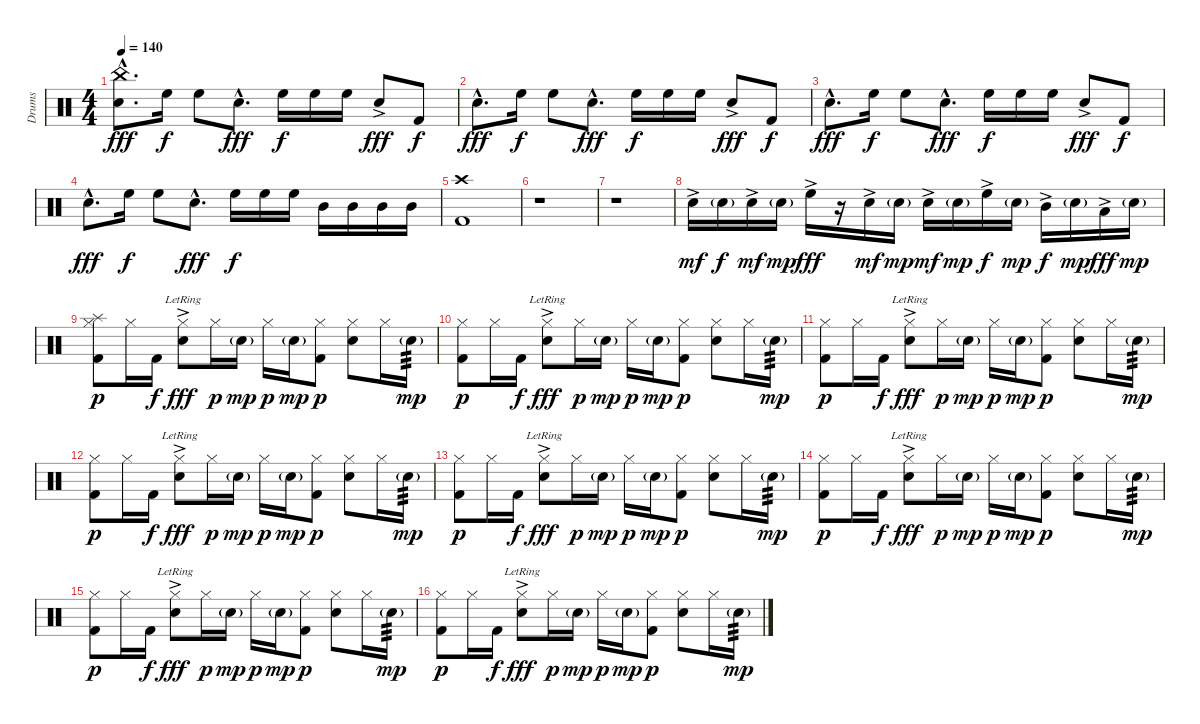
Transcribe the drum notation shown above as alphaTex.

\track ("Drums" "Drums") {instrument percussion}
\staff {score}
\articulation defaults
\ts (4 4)
\tempo 140
\clef neutral
\ks c
("Electric Snare (hit)"{hac} "China (hit)"{hac}).8{d dy fff} "High Floor Tom (hit)".16{dy f} "High Floor Tom (hit)".8 "Electric Snare (hit)"{hac}.8{d dy fff} "High Floor Tom (hit)".16{dy f} "High Floor Tom (hit)".16 "High Floor Tom (hit)".16 "Electric Snare (hit)"{ac}.8{dy fff} "Kick (hit) 2".8{dy f} |
"Electric Snare (hit)"{hac}.8{d dy fff} "High Floor Tom (hit)".16{dy f} "High Floor Tom (hit)".8 "Electric Snare (hit)"{hac}.8{d dy fff} "High Floor Tom (hit)".16{dy f} "High Floor Tom (hit)".16 "High Floor Tom (hit)".16 "Electric Snare (hit)"{ac}.8{dy fff} "Kick (hit) 2".8{dy f} |
"Electric Snare (hit)"{hac}.8{d dy fff} "High Floor Tom (hit)".16{dy f} "High Floor Tom (hit)".8 "Electric Snare (hit)"{hac}.8{d dy fff} "High Floor Tom (hit)".16{dy f} "High Floor Tom (hit)".16 "High Floor Tom (hit)".16 "Electric Snare (hit)"{ac}.8{dy fff} "Kick (hit) 2".8{dy f} |
"Electric Snare (hit)"{hac}.8{d dy fff} "High Floor Tom (hit)".16{dy f} "High Floor Tom (hit)".8 "Electric Snare (hit)"{hac}.8{d dy fff} "High Floor Tom (hit)".16{dy f} "High Floor Tom (hit)".16 "High Floor Tom (hit)".16 "Mid Tom (hit)".16 "Mid Tom (hit)".16 "Mid Tom (hit)".16 "Mid Tom (hit)".16 |
("Kick (hit) 2" "Crash high (hit)").1 |
r.1 |
r.1 |
"Snare (hit) 2"{ac}.16{dy mf} "Electric Snare (hit)"{g}.16{dy f} "Snare (hit) 2"{ac}.16{dy mf} "Electric Snare (hit)"{g}.16{dy mp} "High Floor Tom (hit)"{ac}.16{dy fff} r.16 "Snare (hit) 2"{ac}.16{dy mf} "Electric Snare (hit)"{g}.16{dy mp} "Snare (hit) 2"{ac}.16{dy mf} "Electric Snare (hit)"{g}.16{dy mp} "High Floor Tom (hit)"{ac}.16{dy f} "Electric Snare (hit)"{g}.16{dy mp} "Mid Tom (hit)"{ac}.16{dy f} "Electric Snare (hit)"{g}.16{dy mp} "Low Tom (hit)"{ac}.16{dy fff} "Electric Snare (hit)"{g}.16{dy mp} |
("Hi-Hat (closed)" "Splash (hit)" "Kick (hit) 2").8{dy p} "Hi-Hat (closed)".16 "Kick (hit) 2".16{dy f} ("Hi-Hat (closed)" "Snare (hit) 2"{ac lr}).8{dy fff} "Hi-Hat (closed)".16{dy p} "Electric Snare (hit)"{g}.16{dy mp} "Hi-Hat (closed)".16{dy p} "Electric Snare (hit)"{g}.16{dy mp} ("Hi-Hat (closed)" "Kick (hit) 2").8{dy p} ("Hi-Hat (closed)" "Snare (hit) 2").8 "Hi-Hat (closed)".16 "Electric Snare (hit)"{g}.16{tp 3 dy mp} |
("Hi-Hat (closed)" "Kick (hit) 2").8{dy p} "Hi-Hat (closed)".16 "Kick (hit) 2".16{dy f} ("Hi-Hat (closed)" "Snare (hit) 2"{ac lr}).8{dy fff} "Hi-Hat (closed)".16{dy p} "Electric Snare (hit)"{g}.16{dy mp} "Hi-Hat (closed)".16{dy p} "Electric Snare (hit)"{g}.16{dy mp} ("Hi-Hat (closed)" "Kick (hit) 2").8{dy p} ("Hi-Hat (closed)" "Snare (hit) 2").8 "Hi-Hat (closed)".16 "Electric Snare (hit)"{g}.16{tp 3 dy mp} |
("Hi-Hat (closed)" "Kick (hit) 2").8{dy p} "Hi-Hat (closed)".16 "Kick (hit) 2".16{dy f} ("Hi-Hat (closed)" "Snare (hit) 2"{ac lr}).8{dy fff} "Hi-Hat (closed)".16{dy p} "Electric Snare (hit)"{g}.16{dy mp} "Hi-Hat (closed)".16{dy p} "Electric Snare (hit)"{g}.16{dy mp} ("Hi-Hat (closed)" "Kick (hit) 2").8{dy p} ("Hi-Hat (closed)" "Snare (hit) 2").8 "Hi-Hat (closed)".16 "Electric Snare (hit)"{g}.16{tp 3 dy mp} |
("Hi-Hat (closed)" "Kick (hit) 2").8{dy p} "Hi-Hat (closed)".16 "Kick (hit) 2".16{dy f} ("Hi-Hat (closed)" "Snare (hit) 2"{ac lr}).8{dy fff} "Hi-Hat (closed)".16{dy p} "Electric Snare (hit)"{g}.16{dy mp} "Hi-Hat (closed)".16{dy p} "Electric Snare (hit)"{g}.16{dy mp} ("Hi-Hat (closed)" "Kick (hit) 2").8{dy p} ("Hi-Hat (closed)" "Snare (hit) 2").8 "Hi-Hat (closed)".16 "Electric Snare (hit)"{g}.16{tp 3 dy mp} |
("Hi-Hat (closed)" "Kick (hit) 2").8{dy p} "Hi-Hat (closed)".16 "Kick (hit) 2".16{dy f} ("Hi-Hat (closed)" "Snare (hit) 2"{ac lr}).8{dy fff} "Hi-Hat (closed)".16{dy p} "Electric Snare (hit)"{g}.16{dy mp} "Hi-Hat (closed)".16{dy p} "Electric Snare (hit)"{g}.16{dy mp} ("Hi-Hat (closed)" "Kick (hit) 2").8{dy p} ("Hi-Hat (closed)" "Snare (hit) 2").8 "Hi-Hat (closed)".16 "Electric Snare (hit)"{g}.16{tp 3 dy mp} |
("Hi-Hat (closed)" "Kick (hit) 2").8{dy p} "Hi-Hat (closed)".16 "Kick (hit) 2".16{dy f} ("Hi-Hat (closed)" "Snare (hit) 2"{ac lr}).8{dy fff} "Hi-Hat (closed)".16{dy p} "Electric Snare (hit)"{g}.16{dy mp} "Hi-Hat (closed)".16{dy p} "Electric Snare (hit)"{g}.16{dy mp} ("Hi-Hat (closed)" "Kick (hit) 2").8{dy p} ("Hi-Hat (closed)" "Snare (hit) 2").8 "Hi-Hat (closed)".16 "Electric Snare (hit)"{g}.16{tp 3 dy mp} |
("Hi-Hat (closed)" "Kick (hit) 2").8{dy p} "Hi-Hat (closed)".16 "Kick (hit) 2".16{dy f} ("Hi-Hat (closed)" "Snare (hit) 2"{ac lr}).8{dy fff} "Hi-Hat (closed)".16{dy p} "Electric Snare (hit)"{g}.16{dy mp} "Hi-Hat (closed)".16{dy p} "Electric Snare (hit)"{g}.16{dy mp} ("Hi-Hat (closed)" "Kick (hit) 2").8{dy p} ("Hi-Hat (closed)" "Snare (hit) 2").8 "Hi-Hat (closed)".16 "Electric Snare (hit)"{g}.16{tp 3 dy mp} |
("Hi-Hat (closed)" "Kick (hit) 2").8{dy p} "Hi-Hat (closed)".16 "Kick (hit) 2".16{dy f} ("Hi-Hat (closed)" "Snare (hit) 2"{ac lr}).8{dy fff} "Hi-Hat (closed)".16{dy p} "Electric Snare (hit)"{g}.16{dy mp} "Hi-Hat (closed)".16{dy p} "Electric Snare (hit)"{g}.16{dy mp} ("Hi-Hat (closed)" "Kick (hit) 2").8{dy p} ("Hi-Hat (closed)" "Snare (hit) 2").8 "Hi-Hat (closed)".16 "Electric Snare (hit)"{g}.16{tp 3 dy mp}
